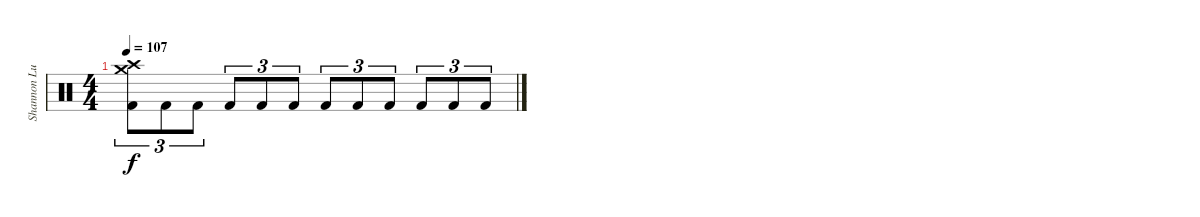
\track ("Shannon Lucas (Drums)" "Shannon Lu") {instrument percussion}
\staff {score}
\articulation defaults
\ts (4 4)
\tempo 107
\clef neutral
\ks c
("Crash medium (hit)" "Crash high (hit)" "Kick (hit) 2").8{tu (3 2) dy f} "Kick (hit) 2".8{tu (3 2)} "Kick (hit) 2".8{tu (3 2)} "Kick (hit) 2".8{tu (3 2)} "Kick (hit) 2".8{tu (3 2)} "Kick (hit) 2".8{tu (3 2)} "Kick (hit) 2".8{tu (3 2)} "Kick (hit) 2".8{tu (3 2)} "Kick (hit) 2".8{tu (3 2)} "Kick (hit) 2".8{tu (3 2)} "Kick (hit) 2".8{tu (3 2)} "Kick (hit) 2".8{tu (3 2)}
